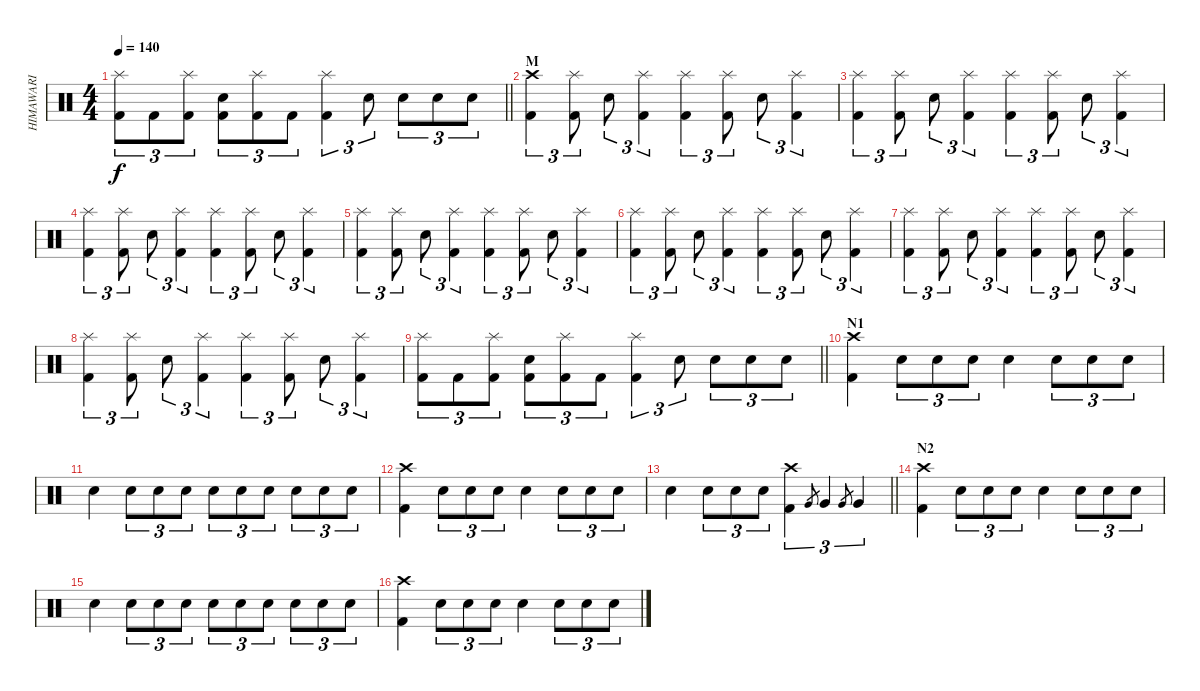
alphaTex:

\track ("HIMAWARI" "HIMAWARI") {instrument percussion}
\staff {score}
\articulation defaults
\ts (4 4)
\tempo 140
\clef neutral
\barLineRight lightlight
\ks c
("Splash (hit)" "Kick (hit) 2").8{tu (3 2) dy f} "Kick (hit) 2".8{tu (3 2)} ("Splash (hit)" "Kick (hit) 2").8{tu (3 2)} ("Snare (hit) 2" "Kick (hit) 2").8{tu (3 2)} ("Splash (hit)" "Kick (hit) 2").8{tu (3 2)} "Kick (hit) 2".8{tu (3 2)} ("Splash (hit)" "Kick (hit) 2").4{tu (3 2)} "Snare (hit) 2".8{tu (3 2)} "Snare (hit) 2".8{tu (3 2)} "Snare (hit) 2".8{tu (3 2)} "Snare (hit) 2".8{tu (3 2)} |
\section ("" "M")
("Crash high (hit)" "Kick (hit) 2").4{tu (3 2)} ("Splash (hit)" "Kick (hit) 2").8{tu (3 2)} "Snare (hit) 2".8{tu (3 2)} ("Splash (hit)" "Kick (hit) 2").4{tu (3 2)} ("Splash (hit)" "Kick (hit) 2").4{tu (3 2)} ("Splash (hit)" "Kick (hit) 2").8{tu (3 2)} "Snare (hit) 2".8{tu (3 2)} ("Splash (hit)" "Kick (hit) 2").4{tu (3 2)} |
("Splash (hit)" "Kick (hit) 2").4{tu (3 2)} ("Splash (hit)" "Kick (hit) 2").8{tu (3 2)} "Snare (hit) 2".8{tu (3 2)} ("Splash (hit)" "Kick (hit) 2").4{tu (3 2)} ("Splash (hit)" "Kick (hit) 2").4{tu (3 2)} ("Splash (hit)" "Kick (hit) 2").8{tu (3 2)} "Snare (hit) 2".8{tu (3 2)} ("Splash (hit)" "Kick (hit) 2").4{tu (3 2)} |
("Splash (hit)" "Kick (hit) 2").4{tu (3 2)} ("Splash (hit)" "Kick (hit) 2").8{tu (3 2)} "Snare (hit) 2".8{tu (3 2)} ("Splash (hit)" "Kick (hit) 2").4{tu (3 2)} ("Splash (hit)" "Kick (hit) 2").4{tu (3 2)} ("Splash (hit)" "Kick (hit) 2").8{tu (3 2)} "Snare (hit) 2".8{tu (3 2)} ("Splash (hit)" "Kick (hit) 2").4{tu (3 2)} |
("Splash (hit)" "Kick (hit) 2").4{tu (3 2)} ("Splash (hit)" "Kick (hit) 2").8{tu (3 2)} "Snare (hit) 2".8{tu (3 2)} ("Splash (hit)" "Kick (hit) 2").4{tu (3 2)} ("Splash (hit)" "Kick (hit) 2").4{tu (3 2)} ("Splash (hit)" "Kick (hit) 2").8{tu (3 2)} "Snare (hit) 2".8{tu (3 2)} ("Splash (hit)" "Kick (hit) 2").4{tu (3 2)} |
("Splash (hit)" "Kick (hit) 2").4{tu (3 2)} ("Splash (hit)" "Kick (hit) 2").8{tu (3 2)} "Snare (hit) 2".8{tu (3 2)} ("Splash (hit)" "Kick (hit) 2").4{tu (3 2)} ("Splash (hit)" "Kick (hit) 2").4{tu (3 2)} ("Splash (hit)" "Kick (hit) 2").8{tu (3 2)} "Snare (hit) 2".8{tu (3 2)} ("Splash (hit)" "Kick (hit) 2").4{tu (3 2)} |
("Splash (hit)" "Kick (hit) 2").4{tu (3 2)} ("Splash (hit)" "Kick (hit) 2").8{tu (3 2)} "Snare (hit) 2".8{tu (3 2)} ("Splash (hit)" "Kick (hit) 2").4{tu (3 2)} ("Splash (hit)" "Kick (hit) 2").4{tu (3 2)} ("Splash (hit)" "Kick (hit) 2").8{tu (3 2)} "Snare (hit) 2".8{tu (3 2)} ("Splash (hit)" "Kick (hit) 2").4{tu (3 2)} |
("Splash (hit)" "Kick (hit) 2").4{tu (3 2)} ("Splash (hit)" "Kick (hit) 2").8{tu (3 2)} "Snare (hit) 2".8{tu (3 2)} ("Splash (hit)" "Kick (hit) 2").4{tu (3 2)} ("Splash (hit)" "Kick (hit) 2").4{tu (3 2)} ("Splash (hit)" "Kick (hit) 2").8{tu (3 2)} "Snare (hit) 2".8{tu (3 2)} ("Splash (hit)" "Kick (hit) 2").4{tu (3 2)} |
\barLineRight lightlight
("Splash (hit)" "Kick (hit) 2").8{tu (3 2)} "Kick (hit) 2".8{tu (3 2)} ("Splash (hit)" "Kick (hit) 2").8{tu (3 2)} ("Snare (hit) 2" "Kick (hit) 2").8{tu (3 2)} ("Splash (hit)" "Kick (hit) 2").8{tu (3 2)} "Kick (hit) 2".8{tu (3 2)} ("Splash (hit)" "Kick (hit) 2").4{tu (3 2)} "Snare (hit) 2".8{tu (3 2)} "Snare (hit) 2".8{tu (3 2)} "Snare (hit) 2".8{tu (3 2)} "Snare (hit) 2".8{tu (3 2)} |
\section ("" "N1")
("Crash high (hit)" "Kick (hit) 2").4 "Snare (hit) 2".8{tu (3 2)} "Snare (hit) 2".8{tu (3 2)} "Snare (hit) 2".8{tu (3 2)} "Snare (hit) 2".4 "Snare (hit) 2".8{tu (3 2)} "Snare (hit) 2".8{tu (3 2)} "Snare (hit) 2".8{tu (3 2)} |
"Snare (hit) 2".4 "Snare (hit) 2".8{tu (3 2)} "Snare (hit) 2".8{tu (3 2)} "Snare (hit) 2".8{tu (3 2)} "Snare (hit) 2".8{tu (3 2)} "Snare (hit) 2".8{tu (3 2)} "Snare (hit) 2".8{tu (3 2)} "Snare (hit) 2".8{tu (3 2)} "Snare (hit) 2".8{tu (3 2)} "Snare (hit) 2".8{tu (3 2)} |
("Crash high (hit)" "Kick (hit) 2").4 "Snare (hit) 2".8{tu (3 2)} "Snare (hit) 2".8{tu (3 2)} "Snare (hit) 2".8{tu (3 2)} "Snare (hit) 2".4 "Snare (hit) 2".8{tu (3 2)} "Snare (hit) 2".8{tu (3 2)} "Snare (hit) 2".8{tu (3 2)} |
\barLineRight lightlight "Snare (hit) 2".4 "Snare (hit) 2".8{tu (3 2)} "Snare (hit) 2".8{tu (3 2)} "Snare (hit) 2".8{tu (3 2)}
("Crash high (hit)" "Kick (hit) 2").4{tu (3 2)} "Very Low Tom (hit)".8{gr} "Very Low Tom (hit)".4{tu (3 2)} "Very Low Tom (hit)".8{gr} "Very Low Tom (hit)".4{tu (3 2)} |
\section ("" "N2")
("Crash high (hit)" "Kick (hit) 2").4 "Snare (hit) 2".8{tu (3 2)} "Snare (hit) 2".8{tu (3 2)} "Snare (hit) 2".8{tu (3 2)} "Snare (hit) 2".4 "Snare (hit) 2".8{tu (3 2)} "Snare (hit) 2".8{tu (3 2)} "Snare (hit) 2".8{tu (3 2)} |
"Snare (hit) 2".4 "Snare (hit) 2".8{tu (3 2)} "Snare (hit) 2".8{tu (3 2)} "Snare (hit) 2".8{tu (3 2)} "Snare (hit) 2".8{tu (3 2)} "Snare (hit) 2".8{tu (3 2)} "Snare (hit) 2".8{tu (3 2)} "Snare (hit) 2".8{tu (3 2)} "Snare (hit) 2".8{tu (3 2)} "Snare (hit) 2".8{tu (3 2)} |
("Crash high (hit)" "Kick (hit) 2").4 "Snare (hit) 2".8{tu (3 2)} "Snare (hit) 2".8{tu (3 2)} "Snare (hit) 2".8{tu (3 2)} "Snare (hit) 2".4 "Snare (hit) 2".8{tu (3 2)} "Snare (hit) 2".8{tu (3 2)} "Snare (hit) 2".8{tu (3 2)}
